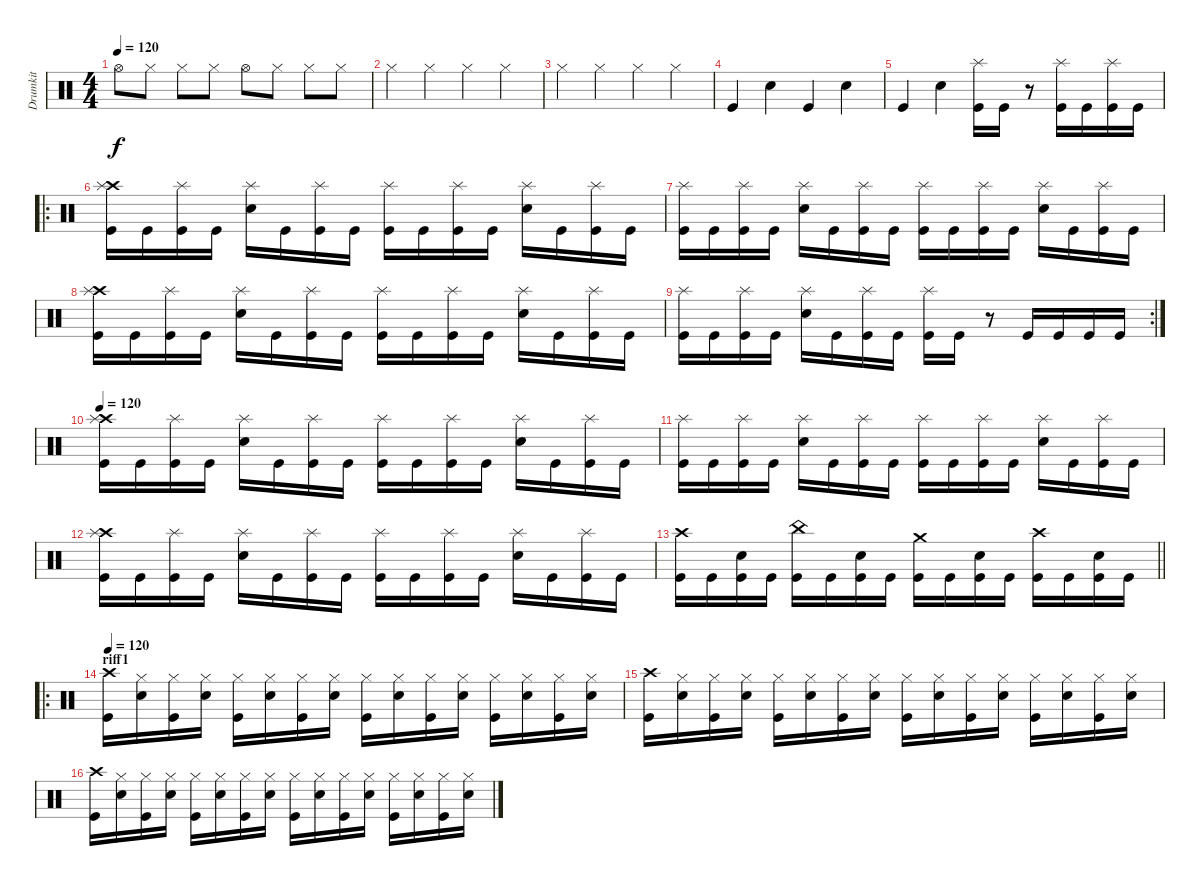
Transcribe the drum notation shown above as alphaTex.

\track ("Drumkit" "Drumkit") {instrument percussion}
\staff {score}
\articulation defaults
\ts (4 4)
\tempo 120
\clef neutral
\ks c "Hi-Hat (open)".8{dy f} "Hi-Hat (closed)".8 "Hi-Hat (closed)".8 "Hi-Hat (closed)".8 "Hi-Hat (open)".8 "Hi-Hat (closed)".8 "Hi-Hat (closed)".8 "Hi-Hat (closed)".8
|
"Hi-Hat (closed)".4 "Hi-Hat (closed)".4 "Hi-Hat (closed)".4 "Hi-Hat (closed)".4 |
"Hi-Hat (closed)".4 "Hi-Hat (closed)".4 "Hi-Hat (closed)".4 "Hi-Hat (closed)".4 |
"Kick (hit)".4 "Snare (hit) 2".4 "Kick (hit)".4 "Snare (hit) 2".4 |
"Kick (hit)".4 "Snare (hit) 2".4 ("Kick (hit)" "Splash (hit)").16 "Kick (hit)".16 r.8 ("Kick (hit)" "Splash (hit)").16 "Kick (hit)".16 ("Kick (hit)" "Splash (hit)").16 "Kick (hit)".16 |
\ro
("Kick (hit)" "Crash high (hit)" "Splash (hit)").16 "Kick (hit)".16 ("Kick (hit)" "Splash (hit)").16 "Kick (hit)".16 ("Snare (hit) 2" "Splash (hit)").16 "Kick (hit)".16 ("Kick (hit)" "Splash (hit)").16 "Kick (hit)".16 ("Kick (hit)" "Splash (hit)").16 "Kick (hit)".16 ("Kick (hit)" "Splash (hit)").16 "Kick (hit)".16 ("Snare (hit) 2" "Splash (hit)").16 "Kick (hit)".16 ("Kick (hit)" "Splash (hit)").16 "Kick (hit)".16 |
("Kick (hit)" "Splash (hit)").16 "Kick (hit)".16 ("Kick (hit)" "Splash (hit)").16 "Kick (hit)".16 ("Snare (hit) 2" "Splash (hit)").16 "Kick (hit)".16 ("Kick (hit)" "Splash (hit)").16 "Kick (hit)".16 ("Kick (hit)" "Splash (hit)").16 "Kick (hit)".16 ("Kick (hit)" "Splash (hit)").16 "Kick (hit)".16 ("Snare (hit) 2" "Splash (hit)").16 "Kick (hit)".16 ("Kick (hit)" "Splash (hit)").16 "Kick (hit)".16 |
("Kick (hit)" "Crash high (hit)" "Splash (hit)").16 "Kick (hit)".16 ("Kick (hit)" "Splash (hit)").16 "Kick (hit)".16 ("Snare (hit) 2" "Splash (hit)").16 "Kick (hit)".16 ("Kick (hit)" "Splash (hit)").16 "Kick (hit)".16 ("Kick (hit)" "Splash (hit)").16 "Kick (hit)".16 ("Kick (hit)" "Splash (hit)").16 "Kick (hit)".16 ("Snare (hit) 2" "Splash (hit)").16 "Kick (hit)".16 ("Kick (hit)" "Splash (hit)").16 "Kick (hit)".16 |
\rc 2
("Kick (hit)" "Splash (hit)").16 "Kick (hit)".16 ("Kick (hit)" "Splash (hit)").16 "Kick (hit)".16 ("Snare (hit) 2" "Splash (hit)").16 "Kick (hit)".16 ("Kick (hit)" "Splash (hit)").16 "Kick (hit)".16 ("Kick (hit)" "Splash (hit)").16 "Kick (hit)".16 r.8 "Kick (hit)".16 "Kick (hit)".16 "Kick (hit)".16 "Kick (hit)".16 |
\tempo 120
("Kick (hit)" "Crash high (hit)" "Splash (hit)").16 "Kick (hit)".16 ("Kick (hit)" "Splash (hit)").16 "Kick (hit)".16 ("Snare (hit) 2" "Splash (hit)").16 "Kick (hit)".16 ("Kick (hit)" "Splash (hit)").16 "Kick (hit)".16 ("Kick (hit)" "Splash (hit)").16 "Kick (hit)".16 ("Kick (hit)" "Splash (hit)").16 "Kick (hit)".16 ("Snare (hit) 2" "Splash (hit)").16 "Kick (hit)".16 ("Kick (hit)" "Splash (hit)").16 "Kick (hit)".16 |
("Kick (hit)" "Splash (hit)").16 "Kick (hit)".16 ("Kick (hit)" "Splash (hit)").16 "Kick (hit)".16 ("Snare (hit) 2" "Splash (hit)").16 "Kick (hit)".16 ("Kick (hit)" "Splash (hit)").16 "Kick (hit)".16 ("Kick (hit)" "Splash (hit)").16 "Kick (hit)".16 ("Kick (hit)" "Splash (hit)").16 "Kick (hit)".16 ("Snare (hit) 2" "Splash (hit)").16 "Kick (hit)".16 ("Kick (hit)" "Splash (hit)").16 "Kick (hit)".16 |
("Kick (hit)" "Crash high (hit)" "Splash (hit)").16 "Kick (hit)".16 ("Kick (hit)" "Splash (hit)").16 "Kick (hit)".16 ("Snare (hit) 2" "Splash (hit)").16 "Kick (hit)".16 ("Kick (hit)" "Splash (hit)").16 "Kick (hit)".16 ("Kick (hit)" "Splash (hit)").16 "Kick (hit)".16 ("Kick (hit)" "Splash (hit)").16 "Kick (hit)".16 ("Snare (hit) 2" "Splash (hit)").16 "Kick (hit)".16 ("Kick (hit)" "Splash (hit)").16 "Kick (hit)".16 |
\barLineRight lightlight
("Crash high (hit)" "Kick (hit)").16 "Kick (hit)".16 ("Snare (hit) 2" "Kick (hit)").16 "Kick (hit)".16 ("China (hit)" "Kick (hit)").16 "Kick (hit)".16 ("Snare (hit) 2" "Kick (hit)").16 "Kick (hit)".16 ("Crash medium (hit)" "Kick (hit)").16 "Kick (hit)".16 ("Snare (hit) 2" "Kick (hit)").16 "Kick (hit)".16 ("Crash high (hit)" "Kick (hit)").16 "Kick (hit)".16 ("Snare (hit) 2" "Kick (hit)").16 "Kick (hit)".16 |
\ro
\section ("" "riff1")
\tempo 120
("Crash high (hit)" "Kick (hit)").16 ("Hi-Hat (closed)" "Snare (hit) 2").16 ("Hi-Hat (closed)" "Kick (hit)").16 ("Hi-Hat (closed)" "Snare (hit) 2").16 ("Hi-Hat (closed)" "Kick (hit)").16 ("Hi-Hat (closed)" "Snare (hit) 2").16 ("Hi-Hat (closed)" "Kick (hit)").16 ("Hi-Hat (closed)" "Snare (hit) 2").16 ("Hi-Hat (closed)" "Kick (hit)").16 ("Hi-Hat (closed)" "Snare (hit) 2").16 ("Hi-Hat (closed)" "Kick (hit)").16 ("Hi-Hat (closed)" "Snare (hit) 2").16 ("Hi-Hat (closed)" "Kick (hit)").16 ("Hi-Hat (closed)" "Snare (hit) 2").16 ("Hi-Hat (closed)" "Kick (hit)").16 ("Hi-Hat (closed)" "Snare (hit) 2").16 |
("Crash high (hit)" "Kick (hit)").16 ("Hi-Hat (closed)" "Snare (hit) 2").16 ("Hi-Hat (closed)" "Kick (hit)").16 ("Hi-Hat (closed)" "Snare (hit) 2").16 ("Hi-Hat (closed)" "Kick (hit)").16 ("Hi-Hat (closed)" "Snare (hit) 2").16 ("Hi-Hat (closed)" "Kick (hit)").16 ("Hi-Hat (closed)" "Snare (hit) 2").16 ("Hi-Hat (closed)" "Kick (hit)").16 ("Hi-Hat (closed)" "Snare (hit) 2").16 ("Hi-Hat (closed)" "Kick (hit)").16 ("Hi-Hat (closed)" "Snare (hit) 2").16 ("Hi-Hat (closed)" "Kick (hit)").16 ("Hi-Hat (closed)" "Snare (hit) 2").16 ("Hi-Hat (closed)" "Kick (hit)").16 ("Hi-Hat (closed)" "Snare (hit) 2").16 |
("Crash high (hit)" "Kick (hit)").16 ("Hi-Hat (closed)" "Snare (hit) 2").16 ("Hi-Hat (closed)" "Kick (hit)").16 ("Hi-Hat (closed)" "Snare (hit) 2").16 ("Hi-Hat (closed)" "Kick (hit)").16 ("Hi-Hat (closed)" "Snare (hit) 2").16 ("Hi-Hat (closed)" "Kick (hit)").16 ("Hi-Hat (closed)" "Snare (hit) 2").16 ("Hi-Hat (closed)" "Kick (hit)").16 ("Hi-Hat (closed)" "Snare (hit) 2").16 ("Hi-Hat (closed)" "Kick (hit)").16 ("Hi-Hat (closed)" "Snare (hit) 2").16 ("Hi-Hat (closed)" "Kick (hit)").16 ("Hi-Hat (closed)" "Snare (hit) 2").16 ("Hi-Hat (closed)" "Kick (hit)").16 ("Hi-Hat (closed)" "Snare (hit) 2").16
